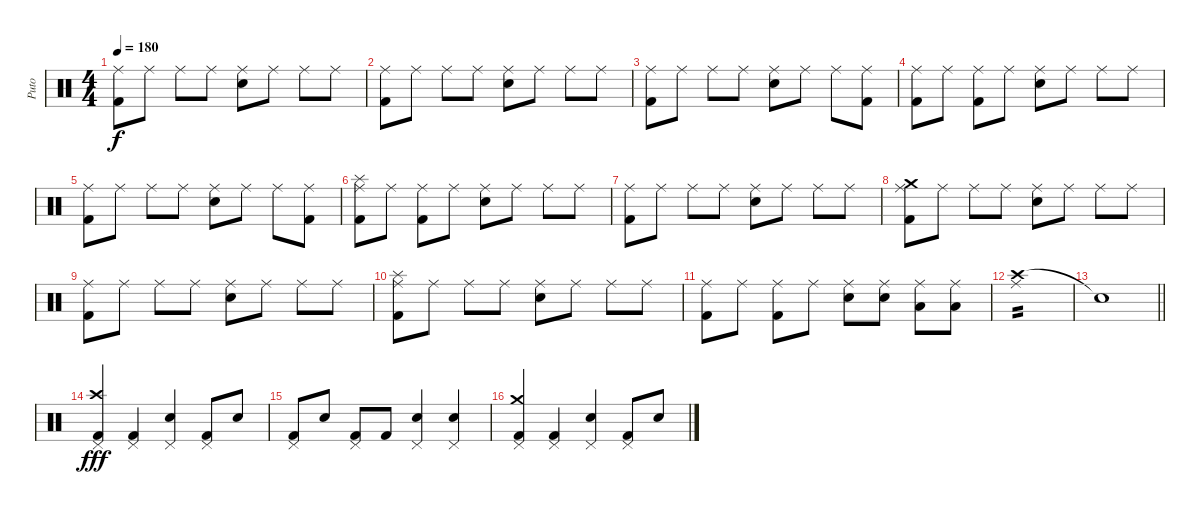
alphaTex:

\track ("Puto" "Puto") {instrument percussion}
\staff {score}
\articulation defaults
\ts (4 4)
\tempo 180
\clef neutral
\ks c
("Kick (hit) 2" "Ride (middle)").8{dy f} "Ride (middle)".8 "Ride (middle)".8 "Ride (middle)".8 ("Snare (hit) 2" "Ride (middle)").8 "Ride (middle)".8 "Ride (middle)".8 "Ride (middle)".8 |
("Kick (hit) 2" "Ride (middle)").8 "Ride (middle)".8 "Ride (middle)".8 "Ride (middle)".8 ("Snare (hit) 2" "Ride (middle)").8 "Ride (middle)".8 "Ride (middle)".8 "Ride (middle)".8 |
("Kick (hit) 2" "Ride (middle)").8 "Ride (middle)".8 "Ride (middle)".8 "Ride (middle)".8 ("Snare (hit) 2" "Ride (middle)").8 "Ride (middle)".8 "Ride (middle)".8 ("Kick (hit) 2" "Ride (middle)").8 |
("Kick (hit) 2" "Ride (middle)").8 "Ride (middle)".8 ("Kick (hit) 2" "Ride (middle)").8 "Ride (middle)".8 ("Snare (hit) 2" "Ride (middle)").8 "Ride (middle)".8 "Ride (middle)".8 "Ride (middle)".8 |
("Kick (hit) 2" "Ride (middle)").8 "Ride (middle)".8 "Ride (middle)".8 "Ride (middle)".8 ("Snare (hit) 2" "Ride (middle)").8 "Ride (middle)".8 "Ride (middle)".8 ("Kick (hit) 2" "Ride (middle)").8 |
("Kick (hit) 2" "Splash (hit)" "Ride (middle)").8 "Ride (middle)".8 ("Kick (hit) 2" "Ride (middle)").8 "Ride (middle)".8 ("Snare (hit) 2" "Ride (middle)").8 "Ride (middle)".8 "Ride (middle)".8 "Ride (middle)".8 |
("Kick (hit) 2" "Ride (middle)").8 "Ride (middle)".8 "Ride (middle)".8 "Ride (middle)".8 ("Snare (hit) 2" "Ride (middle)").8 "Ride (middle)".8 "Ride (middle)".8 "Ride (middle)".8 |
("Kick (hit) 2" "Crash medium (hit)" "Ride (middle)").8 "Ride (middle)".8 "Ride (middle)".8 "Ride (middle)".8 ("Snare (hit) 2" "Ride (middle)").8 "Ride (middle)".8 "Ride (middle)".8 "Ride (middle)".8 |
("Kick (hit) 2" "Ride (middle)").8 "Ride (middle)".8 "Ride (middle)".8 "Ride (middle)".8 ("Snare (hit) 2" "Ride (middle)").8 "Ride (middle)".8 "Ride (middle)".8 "Ride (middle)".8 |
("Kick (hit) 2" "Splash (hit)" "Ride (middle)").8 "Ride (middle)".8 "Ride (middle)".8 "Ride (middle)".8 ("Snare (hit) 2" "Ride (middle)").8 "Ride (middle)".8 "Ride (middle)".8 "Ride (middle)".8 |
("Kick (hit) 2" "Ride (middle)").8 "Ride (middle)".8 ("Kick (hit) 2" "Ride (middle)").8 "Ride (middle)".8 ("Snare (hit) 2" "Ride (middle)").8 ("Snare (hit) 2" "Ride (middle)").8 ("Low Tom (hit)" "Ride (middle)").8 ("Low Tom (hit)" "Ride (middle)").8 |
("Crash high (hit)" "Ride (middle)").1{tp 2} |
\barLineRight lightlight "Snare (hit)"{t}.1
|
("Kick (hit) 2" "Crash high (hit)" "Pedal Hi-Hat (hit)").4{dy fff} ("Kick (hit) 2" "Pedal Hi-Hat (hit)").4 ("Snare (hit) 2" "Pedal Hi-Hat (hit)").4 ("Kick (hit) 2" "Pedal Hi-Hat (hit)").8 "Snare (hit) 2".8 |
("Kick (hit) 2" "Pedal Hi-Hat (hit)").8 "Snare (hit) 2".8 ("Kick (hit) 2" "Pedal Hi-Hat (hit)").8 "Kick (hit) 2".8 ("Snare (hit) 2" "Pedal Hi-Hat (hit)").4 ("Snare (hit) 2" "Pedal Hi-Hat (hit)").4 |
("Kick (hit) 2" "Crash medium (hit)" "Pedal Hi-Hat (hit)").4 ("Kick (hit) 2" "Pedal Hi-Hat (hit)").4 ("Snare (hit) 2" "Pedal Hi-Hat (hit)").4 ("Kick (hit) 2" "Pedal Hi-Hat (hit)").8 "Snare (hit) 2".8
